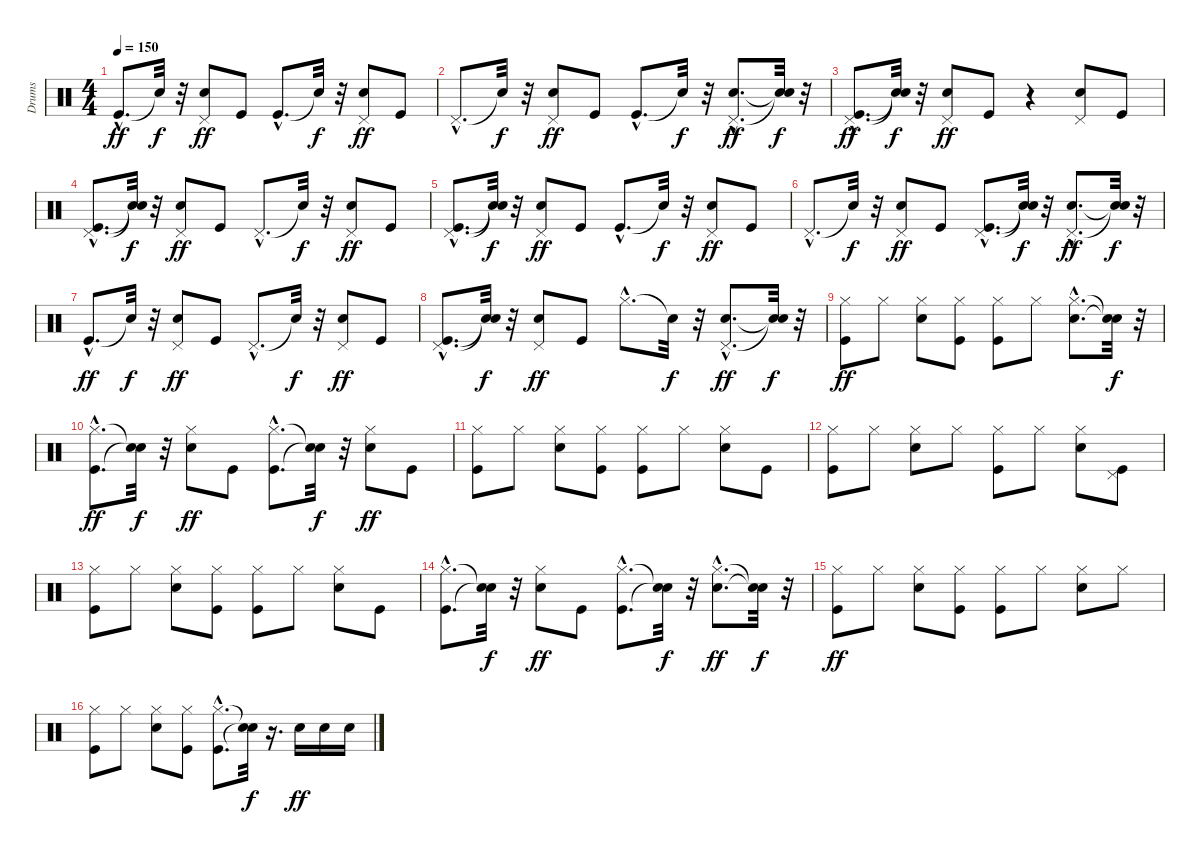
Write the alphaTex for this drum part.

\track ("Drums" "Drums") {instrument percussion}
\staff {score}
\articulation defaults
\ts (4 4)
\tempo 150
\clef neutral
\ks c "Kick (hit)"{hac}.8{d dy ff} "Snare (hit)"{t}.32{dy f}
r.32 ("Snare (hit) 2" "Pedal Hi-Hat (hit)").8{dy ff} "Kick (hit)".8 "Kick (hit)"{hac}.8{d} "Snare (hit)"{t}.32{dy f} r.32 ("Snare (hit) 2" "Pedal Hi-Hat (hit)").8{dy ff} "Kick (hit)".8 |
"Pedal Hi-Hat (hit)"{hac}.8{d} "Snare (hit)"{t}.32{dy f} r.32 ("Snare (hit) 2" "Pedal Hi-Hat (hit)").8{dy ff} "Kick (hit)".8 "Kick (hit)"{hac}.8{d} "Snare (hit)"{t}.32{dy f} r.32 ("Snare (hit) 2"{hac} "Pedal Hi-Hat (hit)"{hac}).8{d dy ff} ("Snare (hit)"{t} "Snare (hit)"{t}).32{dy f} r.32 |
("Kick (hit)"{hac} "Pedal Hi-Hat (hit)"{hac}).8{d dy ff} ("Snare (hit)"{t} "Snare (hit)"{t}).32{dy f} r.32 ("Snare (hit) 2" "Pedal Hi-Hat (hit)").8{dy ff} "Kick (hit)".8 r.4 ("Snare (hit) 2" "Pedal Hi-Hat (hit)").8 "Kick (hit)".8 |
("Kick (hit)"{hac} "Pedal Hi-Hat (hit)"{hac}).8{d} ("Snare (hit)"{t} "Snare (hit)"{t}).32{dy f} r.32 ("Snare (hit) 2" "Pedal Hi-Hat (hit)").8{dy ff} "Kick (hit)".8 "Pedal Hi-Hat (hit)"{hac}.8{d} "Snare (hit)"{t}.32{dy f} r.32 ("Snare (hit) 2" "Pedal Hi-Hat (hit)").8{dy ff} "Kick (hit)".8 |
("Kick (hit)"{hac} "Pedal Hi-Hat (hit)"{hac}).8{d} ("Snare (hit)"{t} "Snare (hit)"{t}).32{dy f} r.32 ("Snare (hit) 2" "Pedal Hi-Hat (hit)").8{dy ff} "Kick (hit)".8 "Kick (hit)"{hac}.8{d} "Snare (hit)"{t}.32{dy f} r.32 ("Snare (hit) 2" "Pedal Hi-Hat (hit)").8{dy ff} "Kick (hit)".8 |
"Pedal Hi-Hat (hit)"{hac}.8{d} "Snare (hit)"{t}.32{dy f} r.32 ("Snare (hit) 2" "Pedal Hi-Hat (hit)").8{dy ff} "Kick (hit)".8 ("Kick (hit)"{hac} "Pedal Hi-Hat (hit)"{hac}).8{d} ("Snare (hit)"{t} "Snare (hit)"{t}).32{dy f} r.32 ("Snare (hit) 2"{hac} "Pedal Hi-Hat (hit)"{hac}).8{d dy ff} ("Snare (hit)"{t} "Snare (hit)"{t}).32{dy f} r.32 |
"Kick (hit)"{hac}.8{d dy ff} "Snare (hit)"{t}.32{dy f} r.32 ("Snare (hit) 2" "Pedal Hi-Hat (hit)").8{dy ff} "Kick (hit)".8 "Pedal Hi-Hat (hit)"{hac}.8{d} "Snare (hit)"{t}.32{dy f} r.32 ("Snare (hit) 2" "Pedal Hi-Hat (hit)").8{dy ff} "Kick (hit)".8 |
("Kick (hit)"{hac} "Pedal Hi-Hat (hit)"{hac}).8{d} ("Snare (hit)"{t} "Snare (hit)"{t}).32{dy f} r.32 ("Snare (hit) 2" "Pedal Hi-Hat (hit)").8{dy ff} "Kick (hit)".8 "Hi-Hat (closed)"{hac}.8{d} "Snare (hit)"{t}.32{dy f} r.32 ("Snare (hit) 2"{hac} "Pedal Hi-Hat (hit)"{hac}).8{d dy ff} ("Snare (hit)"{t} "Snare (hit)"{t}).32{dy f} r.32 |
("Kick (hit)" "Hi-Hat (closed)").8{dy ff} "Hi-Hat (closed)".8 ("Snare (hit) 2" "Hi-Hat (closed)").8 ("Kick (hit)" "Hi-Hat (closed)").8 ("Kick (hit)" "Hi-Hat (closed)").8 "Hi-Hat (closed)".8 ("Snare (hit) 2"{hac} "Hi-Hat (closed)"{hac}).8{d} ("Snare (hit)"{t} "Snare (hit)"{t}).32{dy f} r.32 |
("Kick (hit)"{hac} "Hi-Hat (closed)"{hac}).8{d dy ff} ("Snare (hit)"{t} "Snare (hit)"{t}).32{dy f} r.32 ("Snare (hit) 2" "Hi-Hat (closed)").8{dy ff} "Kick (hit)".8 ("Kick (hit)"{hac} "Hi-Hat (closed)"{hac}).8{d} ("Snare (hit)"{t} "Snare (hit)"{t}).32{dy f} r.32 ("Snare (hit) 2" "Hi-Hat (closed)").8{dy ff} "Kick (hit)".8 |
("Kick (hit)" "Hi-Hat (closed)").8 "Hi-Hat (closed)".8 ("Snare (hit) 2" "Hi-Hat (closed)").8 ("Kick (hit)" "Hi-Hat (closed)").8 ("Kick (hit)" "Hi-Hat (closed)").8 "Hi-Hat (closed)".8 ("Snare (hit) 2" "Hi-Hat (closed)").8 "Kick (hit)".8 |
("Kick (hit)" "Hi-Hat (closed)").8 "Hi-Hat (closed)".8 ("Snare (hit) 2" "Hi-Hat (closed)").8 "Hi-Hat (closed)".8 ("Kick (hit)" "Hi-Hat (closed)").8 "Hi-Hat (closed)".8 ("Snare (hit) 2" "Hi-Hat (closed)").8 ("Kick (hit)" "Pedal Hi-Hat (hit)").8 |
("Kick (hit)" "Hi-Hat (closed)").8 "Hi-Hat (closed)".8 ("Snare (hit) 2" "Hi-Hat (closed)").8 ("Kick (hit)" "Hi-Hat (closed)").8 ("Kick (hit)" "Hi-Hat (closed)").8 "Hi-Hat (closed)".8 ("Snare (hit) 2" "Hi-Hat (closed)").8 "Kick (hit)".8 |
("Kick (hit)"{hac} "Hi-Hat (closed)"{hac}).8{d} ("Snare (hit)"{t} "Snare (hit)"{t}).32{dy f} r.32 ("Snare (hit) 2" "Hi-Hat (closed)").8{dy ff} "Kick (hit)".8 ("Kick (hit)"{hac} "Hi-Hat (closed)"{hac}).8{d} ("Snare (hit)"{t} "Snare (hit)"{t}).32{dy f} r.32 ("Snare (hit) 2"{hac} "Hi-Hat (closed)"{hac}).8{d dy ff} ("Snare (hit)"{t} "Snare (hit)"{t}).32{dy f} r.32 |
("Kick (hit)" "Hi-Hat (closed)").8{dy ff} "Hi-Hat (closed)".8 ("Snare (hit) 2" "Hi-Hat (closed)").8 ("Kick (hit)" "Hi-Hat (closed)").8 ("Kick (hit)" "Hi-Hat (closed)").8 "Hi-Hat (closed)".8 ("Snare (hit) 2" "Hi-Hat (closed)").8 "Hi-Hat (closed)".8 |
("Kick (hit)" "Hi-Hat (closed)").8 "Hi-Hat (closed)".8 ("Snare (hit) 2" "Hi-Hat (closed)").8 ("Kick (hit)" "Hi-Hat (closed)").8 ("Kick (hit)"{hac} "Hi-Hat (closed)"{hac}).8{d} ("Snare (hit)"{t} "Snare (hit)"{t}).32{dy f} r.16{d} "Snare (hit) 2".16{dy ff} "Snare (hit) 2".16 "Snare (hit) 2".16
